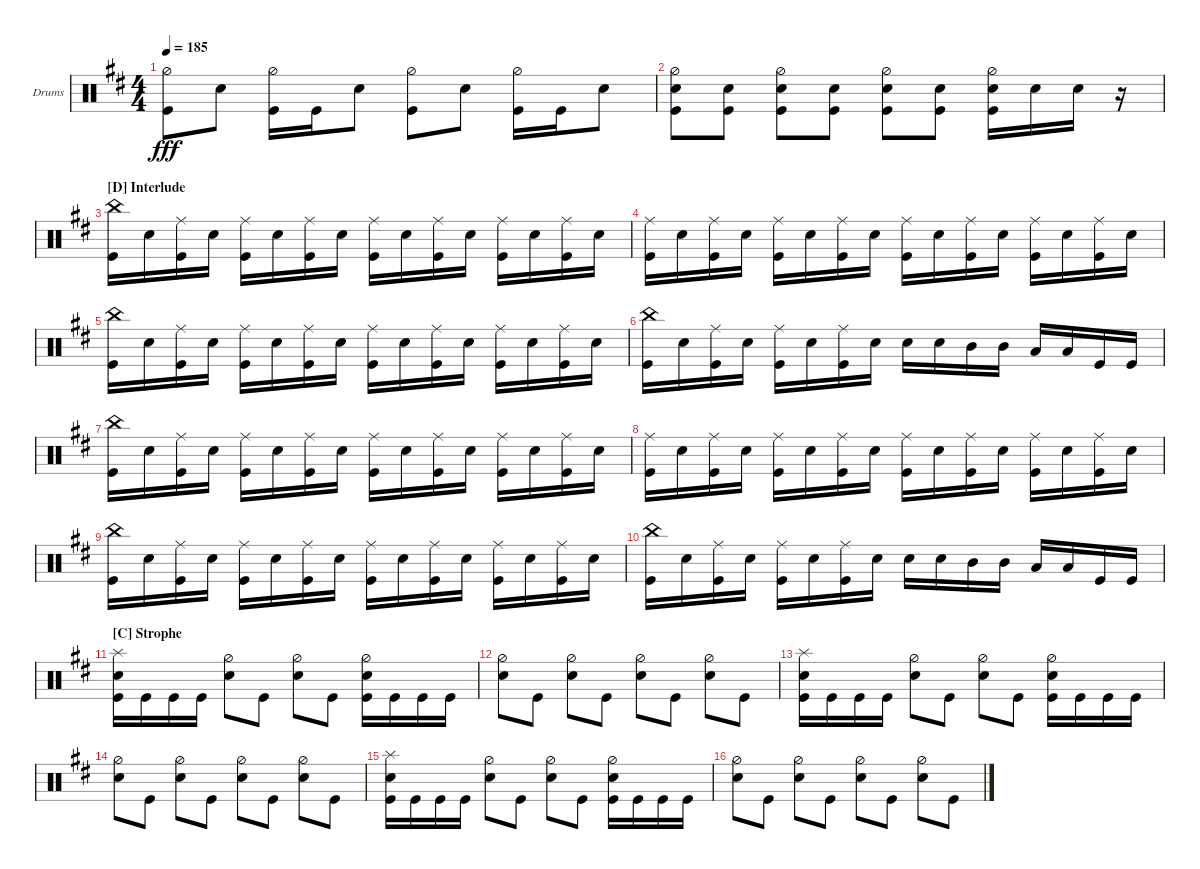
\defaultSystemsLayout 4
\bracketExtendMode groupsimilarinstruments
\firstSystemTrackNameOrientation horizontal
\otherSystemsTrackNameOrientation horizontal
\track ("Drumkit" "Drums") {instrument percussion}
\staff {score}
\articulation defaults
\ts (4 4)
\tempo 185
\clef neutral
\ks bminor
("Hi-Hat (half)" "Kick (hit)").8{dy fff} "Snare (hit) 2".8 ("Kick (hit)" "Hi-Hat (half)").16 "Kick (hit)".16 "Snare (hit) 2".8 ("Hi-Hat (half)" "Kick (hit)").8 "Snare (hit) 2".8 ("Kick (hit)" "Hi-Hat (half)").16 "Kick (hit)".16 "Snare (hit) 2".8 |
("Snare (hit) 2" "Kick (hit)" "Hi-Hat (half)").8 ("Kick (hit)" "Snare (hit) 2").8 ("Snare (hit) 2" "Kick (hit)" "Hi-Hat (half)").8 ("Kick (hit)" "Snare (hit) 2").8 ("Snare (hit) 2" "Kick (hit)" "Hi-Hat (half)").8 ("Kick (hit)" "Snare (hit) 2").8 ("Snare (hit) 2" "Kick (hit)" "Hi-Hat (half)").16 "Snare (hit) 2".16 "Snare (hit) 2".16 r.16 |
\section ("D" "Interlude")
("Kick (hit)" "China (hit)").16 "Snare (hit) 2".16 ("Kick (hit)" "Ride (middle)").16 "Snare (hit) 2".16 ("Kick (hit)" "Ride (middle)").16 "Snare (hit) 2".16 ("Kick (hit)" "Ride (middle)").16 "Snare (hit) 2".16 ("Kick (hit)" "Ride (middle)").16 "Snare (hit) 2".16 ("Kick (hit)" "Ride (middle)").16 "Snare (hit) 2".16 ("Kick (hit)" "Ride (middle)").16 "Snare (hit) 2".16 ("Kick (hit)" "Ride (middle)").16 "Snare (hit) 2".16 |
("Kick (hit)" "Ride (middle)").16 "Snare (hit) 2".16 ("Kick (hit)" "Ride (middle)").16 "Snare (hit) 2".16 ("Kick (hit)" "Ride (middle)").16 "Snare (hit) 2".16 ("Kick (hit)" "Ride (middle)").16 "Snare (hit) 2".16 ("Kick (hit)" "Ride (middle)").16 "Snare (hit) 2".16 ("Kick (hit)" "Ride (middle)").16 "Snare (hit) 2".16 ("Kick (hit)" "Ride (middle)").16 "Snare (hit) 2".16 ("Kick (hit)" "Ride (middle)").16 "Snare (hit) 2".16 |
("Kick (hit)" "China (hit)").16 "Snare (hit) 2".16 ("Kick (hit)" "Ride (middle)").16 "Snare (hit) 2".16 ("Kick (hit)" "Ride (middle)").16 "Snare (hit) 2".16 ("Kick (hit)" "Ride (middle)").16 "Snare (hit) 2".16 ("Kick (hit)" "Ride (middle)").16 "Snare (hit) 2".16 ("Kick (hit)" "Ride (middle)").16 "Snare (hit) 2".16 ("Kick (hit)" "Ride (middle)").16 "Snare (hit) 2".16 ("Kick (hit)" "Ride (middle)").16 "Snare (hit) 2".16 |
("Kick (hit)" "China (hit)").16 "Snare (hit) 2".16 ("Kick (hit)" "Ride (middle)").16 "Snare (hit) 2".16 ("Kick (hit)" "Ride (middle)").16 "Snare (hit) 2".16 ("Kick (hit)" "Ride (middle)").16 "Snare (hit) 2".16 "Snare (hit) 2".16 "Snare (hit) 2".16 "Mid Tom (hit)".16 "Mid Tom (hit)".16 "Low Tom (hit)".16 "Low Tom (hit)".16 "Kick (hit)".16 "Kick (hit)".16 |
("Kick (hit)" "China (hit)").16 "Snare (hit) 2".16 ("Kick (hit)" "Ride (middle)").16 "Snare (hit) 2".16 ("Kick (hit)" "Ride (middle)").16 "Snare (hit) 2".16 ("Kick (hit)" "Ride (middle)").16 "Snare (hit) 2".16 ("Kick (hit)" "Ride (middle)").16 "Snare (hit) 2".16 ("Kick (hit)" "Ride (middle)").16 "Snare (hit) 2".16 ("Kick (hit)" "Ride (middle)").16 "Snare (hit) 2".16 ("Kick (hit)" "Ride (middle)").16 "Snare (hit) 2".16 |
("Kick (hit)" "Ride (middle)").16 "Snare (hit) 2".16 ("Kick (hit)" "Ride (middle)").16 "Snare (hit) 2".16 ("Kick (hit)" "Ride (middle)").16 "Snare (hit) 2".16 ("Kick (hit)" "Ride (middle)").16 "Snare (hit) 2".16 ("Kick (hit)" "Ride (middle)").16 "Snare (hit) 2".16 ("Kick (hit)" "Ride (middle)").16 "Snare (hit) 2".16 ("Kick (hit)" "Ride (middle)").16 "Snare (hit) 2".16 ("Kick (hit)" "Ride (middle)").16 "Snare (hit) 2".16 |
("Kick (hit)" "China (hit)").16 "Snare (hit) 2".16 ("Kick (hit)" "Ride (middle)").16 "Snare (hit) 2".16 ("Kick (hit)" "Ride (middle)").16 "Snare (hit) 2".16 ("Kick (hit)" "Ride (middle)").16 "Snare (hit) 2".16 ("Kick (hit)" "Ride (middle)").16 "Snare (hit) 2".16 ("Kick (hit)" "Ride (middle)").16 "Snare (hit) 2".16 ("Kick (hit)" "Ride (middle)").16 "Snare (hit) 2".16 ("Kick (hit)" "Ride (middle)").16 "Snare (hit) 2".16 |
("Kick (hit)" "China (hit)").16 "Snare (hit) 2".16 ("Kick (hit)" "Ride (middle)").16 "Snare (hit) 2".16 ("Kick (hit)" "Ride (middle)").16 "Snare (hit) 2".16 ("Kick (hit)" "Ride (middle)").16 "Snare (hit) 2".16 "Snare (hit) 2".16 "Snare (hit) 2".16 "Mid Tom (hit)".16 "Mid Tom (hit)".16 "Low Tom (hit)".16 "Low Tom (hit)".16 "Kick (hit)".16 "Kick (hit)".16 |
\section ("C" "Strophe")
("Snare (hit) 2" "Splash (hit)" "Kick (hit)").16 "Kick (hit)".16 "Kick (hit)".16 "Kick (hit)".16 ("Snare (hit) 2" "Hi-Hat (half)").8 "Kick (hit)".8 ("Snare (hit) 2" "Hi-Hat (half)").8 "Kick (hit)".8 ("Snare (hit) 2" "Hi-Hat (half)" "Kick (hit)").16 "Kick (hit)".16 "Kick (hit)".16 "Kick (hit)".16 |
("Snare (hit) 2" "Hi-Hat (half)").8 "Kick (hit)".8 ("Snare (hit) 2" "Hi-Hat (half)").8 "Kick (hit)".8 ("Snare (hit) 2" "Hi-Hat (half)").8 "Kick (hit)".8 ("Snare (hit) 2" "Hi-Hat (half)").8 "Kick (hit)".8 |
("Snare (hit) 2" "Splash (hit)" "Kick (hit)").16 "Kick (hit)".16 "Kick (hit)".16 "Kick (hit)".16 ("Snare (hit) 2" "Hi-Hat (half)").8 "Kick (hit)".8 ("Snare (hit) 2" "Hi-Hat (half)").8 "Kick (hit)".8 ("Snare (hit) 2" "Hi-Hat (half)" "Kick (hit)").16 "Kick (hit)".16 "Kick (hit)".16 "Kick (hit)".16 |
("Snare (hit) 2" "Hi-Hat (half)").8 "Kick (hit)".8 ("Snare (hit) 2" "Hi-Hat (half)").8 "Kick (hit)".8 ("Snare (hit) 2" "Hi-Hat (half)").8 "Kick (hit)".8 ("Snare (hit) 2" "Hi-Hat (half)").8 "Kick (hit)".8 |
("Snare (hit) 2" "Splash (hit)" "Kick (hit)").16 "Kick (hit)".16 "Kick (hit)".16 "Kick (hit)".16 ("Snare (hit) 2" "Hi-Hat (half)").8 "Kick (hit)".8 ("Snare (hit) 2" "Hi-Hat (half)").8 "Kick (hit)".8 ("Snare (hit) 2" "Hi-Hat (half)" "Kick (hit)").16 "Kick (hit)".16 "Kick (hit)".16 "Kick (hit)".16 |
("Snare (hit) 2" "Hi-Hat (half)").8 "Kick (hit)".8 ("Snare (hit) 2" "Hi-Hat (half)").8 "Kick (hit)".8 ("Snare (hit) 2" "Hi-Hat (half)").8 "Kick (hit)".8 ("Snare (hit) 2" "Hi-Hat (half)").8 "Kick (hit)".8
